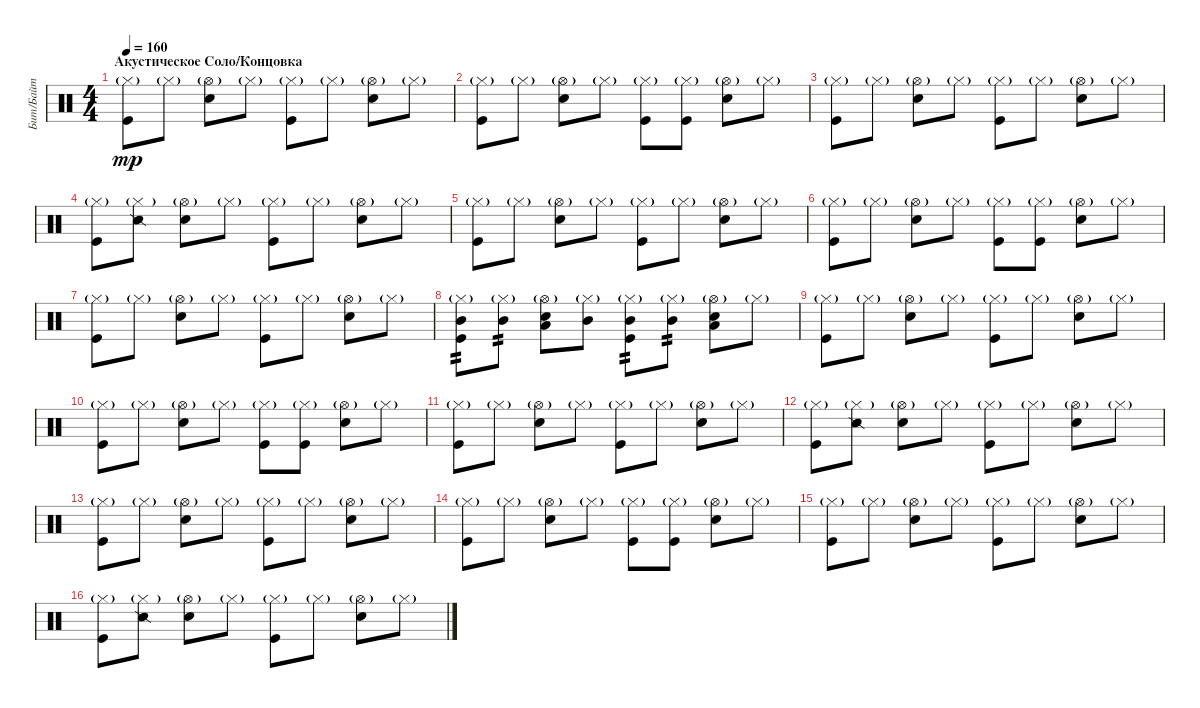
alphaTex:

\track ("Бит/Байт" "Бит/Байт") {instrument percussion}
\staff {score}
\articulation defaults
\ts (4 4)
\section ("" "Акустическое Соло/Концовка")
\tempo 160
\clef neutral
\ks c
("Hi-Hat (closed)"{g} "Kick (hit)").8{dy mp} "Hi-Hat (closed)"{g}.8 ("Hi-Hat (open)"{g} "Snare (hit) 2").8 "Hi-Hat (closed)"{g}.8 ("Hi-Hat (closed)"{g} "Kick (hit)").8 "Hi-Hat (closed)"{g}.8 ("Hi-Hat (open)"{g} "Snare (hit) 2").8 "Hi-Hat (closed)"{g}.8 |
("Hi-Hat (closed)"{g} "Kick (hit)").8 "Hi-Hat (closed)"{g}.8 ("Hi-Hat (open)"{g} "Snare (hit) 2").8 "Hi-Hat (closed)"{g}.8 ("Hi-Hat (closed)"{g} "Kick (hit)").8 ("Hi-Hat (closed)"{g} "Kick (hit)").8 ("Hi-Hat (open)"{g} "Snare (hit) 2").8 "Hi-Hat (closed)"{g}.8 |
("Hi-Hat (closed)"{g} "Kick (hit)").8 "Hi-Hat (closed)"{g}.8 ("Hi-Hat (open)"{g} "Snare (hit) 2").8 "Hi-Hat (closed)"{g}.8 ("Hi-Hat (closed)"{g} "Kick (hit)").8 "Hi-Hat (closed)"{g}.8 ("Hi-Hat (open)"{g} "Snare (hit) 2").8 "Hi-Hat (closed)"{g}.8 |
("Hi-Hat (closed)"{g} "Kick (hit)").8 ("Hi-Hat (closed)"{g} "Snare (side stick) 2").8 ("Hi-Hat (open)"{g} "Snare (hit) 2").8 "Hi-Hat (closed)"{g}.8 ("Hi-Hat (closed)"{g} "Kick (hit)").8 "Hi-Hat (closed)"{g}.8 ("Hi-Hat (open)"{g} "Snare (hit) 2").8 "Hi-Hat (closed)"{g}.8 |
("Hi-Hat (closed)"{g} "Kick (hit)").8 "Hi-Hat (closed)"{g}.8 ("Hi-Hat (open)"{g} "Snare (hit) 2").8 "Hi-Hat (closed)"{g}.8 ("Hi-Hat (closed)"{g} "Kick (hit)").8 "Hi-Hat (closed)"{g}.8 ("Hi-Hat (open)"{g} "Snare (hit) 2").8 "Hi-Hat (closed)"{g}.8 |
("Hi-Hat (closed)"{g} "Kick (hit)").8 "Hi-Hat (closed)"{g}.8 ("Hi-Hat (open)"{g} "Snare (hit) 2").8 "Hi-Hat (closed)"{g}.8 ("Hi-Hat (closed)"{g} "Kick (hit)").8 ("Hi-Hat (closed)"{g} "Kick (hit)").8 ("Hi-Hat (open)"{g} "Snare (hit) 2").8 "Hi-Hat (closed)"{g}.8 |
("Hi-Hat (closed)"{g} "Kick (hit)").8 "Hi-Hat (closed)"{g}.8 ("Hi-Hat (open)"{g} "Snare (hit) 2").8 "Hi-Hat (closed)"{g}.8 ("Hi-Hat (closed)"{g} "Kick (hit)").8 "Hi-Hat (closed)"{g}.8 ("Hi-Hat (open)"{g} "Snare (hit) 2").8 "Hi-Hat (closed)"{g}.8 |
("Hi-Hat (closed)"{g} "Mid Tom (hit)" "Kick (hit)").8{tp 2} ("Hi-Hat (closed)"{g} "Mid Tom (hit)").8{tp 2} ("Hi-Hat (open)"{g} "Low Tom (hit)" "Snare (hit) 2").8 ("Hi-Hat (closed)"{g} "Mid Tom (hit)").8 ("Hi-Hat (closed)"{g} "Mid Tom (hit)" "Kick (hit)").8{tp 2} ("Hi-Hat (closed)"{g} "Mid Tom (hit)").8{tp 2} ("Hi-Hat (open)"{g} "Low Tom (hit)" "Snare (hit) 2").8 "Hi-Hat (closed)"{g}.8 |
("Hi-Hat (closed)"{g} "Kick (hit)").8 "Hi-Hat (closed)"{g}.8 ("Hi-Hat (open)"{g} "Snare (hit) 2").8 "Hi-Hat (closed)"{g}.8 ("Hi-Hat (closed)"{g} "Kick (hit)").8 "Hi-Hat (closed)"{g}.8 ("Hi-Hat (open)"{g} "Snare (hit) 2").8 "Hi-Hat (closed)"{g}.8 |
("Hi-Hat (closed)"{g} "Kick (hit)").8 "Hi-Hat (closed)"{g}.8 ("Hi-Hat (open)"{g} "Snare (hit) 2").8 "Hi-Hat (closed)"{g}.8 ("Hi-Hat (closed)"{g} "Kick (hit)").8 ("Hi-Hat (closed)"{g} "Kick (hit)").8 ("Hi-Hat (open)"{g} "Snare (hit) 2").8 "Hi-Hat (closed)"{g}.8 |
("Hi-Hat (closed)"{g} "Kick (hit)").8 "Hi-Hat (closed)"{g}.8 ("Hi-Hat (open)"{g} "Snare (hit) 2").8 "Hi-Hat (closed)"{g}.8 ("Hi-Hat (closed)"{g} "Kick (hit)").8 "Hi-Hat (closed)"{g}.8 ("Hi-Hat (open)"{g} "Snare (hit) 2").8 "Hi-Hat (closed)"{g}.8 |
("Hi-Hat (closed)"{g} "Kick (hit)").8 ("Hi-Hat (closed)"{g} "Snare (side stick) 2").8 ("Hi-Hat (open)"{g} "Snare (hit) 2").8 "Hi-Hat (closed)"{g}.8 ("Hi-Hat (closed)"{g} "Kick (hit)").8 "Hi-Hat (closed)"{g}.8 ("Hi-Hat (open)"{g} "Snare (hit) 2").8 "Hi-Hat (closed)"{g}.8 |
("Hi-Hat (closed)"{g} "Kick (hit)").8 "Hi-Hat (closed)"{g}.8 ("Hi-Hat (open)"{g} "Snare (hit) 2").8 "Hi-Hat (closed)"{g}.8 ("Hi-Hat (closed)"{g} "Kick (hit)").8 "Hi-Hat (closed)"{g}.8 ("Hi-Hat (open)"{g} "Snare (hit) 2").8 "Hi-Hat (closed)"{g}.8 |
("Hi-Hat (closed)"{g} "Kick (hit)").8 "Hi-Hat (closed)"{g}.8 ("Hi-Hat (open)"{g} "Snare (hit) 2").8 "Hi-Hat (closed)"{g}.8 ("Hi-Hat (closed)"{g} "Kick (hit)").8 ("Hi-Hat (closed)"{g} "Kick (hit)").8 ("Hi-Hat (open)"{g} "Snare (hit) 2").8 "Hi-Hat (closed)"{g}.8 |
("Hi-Hat (closed)"{g} "Kick (hit)").8 "Hi-Hat (closed)"{g}.8 ("Hi-Hat (open)"{g} "Snare (hit) 2").8 "Hi-Hat (closed)"{g}.8 ("Hi-Hat (closed)"{g} "Kick (hit)").8 "Hi-Hat (closed)"{g}.8 ("Hi-Hat (open)"{g} "Snare (hit) 2").8 "Hi-Hat (closed)"{g}.8 |
("Hi-Hat (closed)"{g} "Kick (hit)").8 ("Hi-Hat (closed)"{g} "Snare (side stick) 2").8 ("Hi-Hat (open)"{g} "Snare (hit) 2").8 "Hi-Hat (closed)"{g}.8 ("Hi-Hat (closed)"{g} "Kick (hit)").8 "Hi-Hat (closed)"{g}.8 ("Hi-Hat (open)"{g} "Snare (hit) 2").8 "Hi-Hat (closed)"{g}.8
